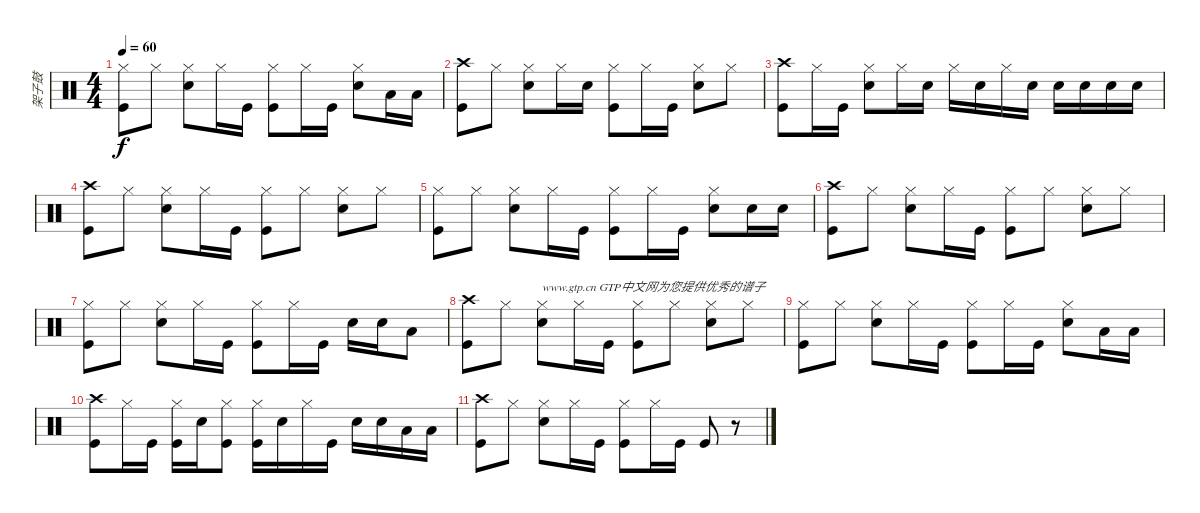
\track ("架子鼓" "架子鼓") {instrument percussion}
\staff {score}
\articulation defaults
\ts (4 4)
\tempo 60
\clef neutral
\ks c
("Hi-Hat (closed)" "Kick (hit)").8{dy f} "Hi-Hat (closed)".8 ("Hi-Hat (closed)" "Snare (hit) 2").8 "Hi-Hat (closed)".16 "Kick (hit)".16 ("Hi-Hat (closed)" "Kick (hit)").8 "Hi-Hat (closed)".16 "Kick (hit)".16 ("Hi-Hat (closed)" "Snare (hit) 2").8 "Low Tom (hit)".16 "Low Tom (hit)".16 |
("Crash high (hit)" "Kick (hit)").8 "Hi-Hat (closed)".8 ("Hi-Hat (closed)" "Snare (hit) 2").8 "Hi-Hat (closed)".16 "Snare (hit) 2".16 ("Hi-Hat (closed)" "Kick (hit)").8 "Hi-Hat (closed)".16 "Kick (hit)".16 ("Hi-Hat (closed)" "Snare (hit) 2").8 "Hi-Hat (closed)".8 |
("Crash high (hit)" "Kick (hit)").8 "Hi-Hat (closed)".16 "Kick (hit)".16 ("Hi-Hat (closed)" "Snare (hit) 2").8 "Hi-Hat (closed)".16 "Snare (hit) 2".16 "Hi-Hat (closed)".16 "Snare (hit) 2".16 "Hi-Hat (closed)".16 "Snare (hit) 2".16 "Snare (hit) 2".16 "Snare (hit) 2".16 "Snare (hit) 2".16 "Snare (hit) 2".16 |
("Crash high (hit)" "Kick (hit)").8 "Hi-Hat (closed)".8 ("Hi-Hat (closed)" "Snare (hit) 2").8 "Hi-Hat (closed)".16 "Kick (hit)".16 ("Hi-Hat (closed)" "Kick (hit)").8 "Hi-Hat (closed)".8 ("Hi-Hat (closed)" "Snare (hit) 2").8 "Hi-Hat (closed)".8 |
("Hi-Hat (closed)" "Kick (hit)").8 "Hi-Hat (closed)".8 ("Hi-Hat (closed)" "Snare (hit) 2").8 "Hi-Hat (closed)".16 "Kick (hit)".16 ("Hi-Hat (closed)" "Kick (hit)").8 "Hi-Hat (closed)".16 "Kick (hit)".16 ("Hi-Hat (closed)" "Snare (hit) 2").8 "Snare (hit) 2".16 "Snare (hit) 2".16 |
("Crash high (hit)" "Kick (hit)").8 "Hi-Hat (closed)".8 ("Hi-Hat (closed)" "Snare (hit) 2").8 "Hi-Hat (closed)".16 "Kick (hit)".16 ("Hi-Hat (closed)" "Kick (hit)").8 "Hi-Hat (closed)".8 ("Hi-Hat (closed)" "Snare (hit) 2").8 "Hi-Hat (closed)".8 |
("Hi-Hat (closed)" "Kick (hit)").8 "Hi-Hat (closed)".8 ("Hi-Hat (closed)" "Snare (hit) 2").8 "Hi-Hat (closed)".16 "Kick (hit)".16 ("Hi-Hat (closed)" "Kick (hit)").8 "Hi-Hat (closed)".16 "Kick (hit)".16 "Snare (hit) 2".16 "Snare (hit) 2".16 "Low Tom (hit)".8 |
("Crash high (hit)" "Kick (hit)").8 "Hi-Hat (closed)".8 ("Hi-Hat (closed)" "Snare (hit) 2").8{txt "www.gtp.cn GTP中文网为您提供优秀的谱子"} "Hi-Hat (closed)".16 "Kick (hit)".16 ("Hi-Hat (closed)" "Kick (hit)").8 "Hi-Hat (closed)".8 ("Hi-Hat (closed)" "Snare (hit) 2").8 "Hi-Hat (closed)".8 |
("Hi-Hat (closed)" "Kick (hit)").8 "Hi-Hat (closed)".8 ("Hi-Hat (closed)" "Snare (hit) 2").8 "Hi-Hat (closed)".16 "Kick (hit)".16 ("Hi-Hat (closed)" "Kick (hit)").8 "Hi-Hat (closed)".16 "Kick (hit)".16 ("Hi-Hat (closed)" "Snare (hit) 2").8 "Low Tom (hit)".16 "Low Tom (hit)".16 |
("Crash high (hit)" "Kick (hit)").8 "Hi-Hat (closed)".16 "Kick (hit)".16 ("Hi-Hat (closed)" "Kick (hit)").16 "Snare (hit) 2".16 ("Hi-Hat (closed)" "Kick (hit)").8 ("Hi-Hat (closed)" "Kick (hit)").16 "Snare (hit) 2".16 "Hi-Hat (closed)".16 "Kick (hit)".16 "Snare (hit) 2".16 "Snare (hit) 2".16 "Low Tom (hit)".16 "Low Tom (hit)".16 |
("Crash high (hit)" "Kick (hit)").8 "Hi-Hat (closed)".8 ("Hi-Hat (closed)" "Snare (hit) 2").8 "Hi-Hat (closed)".16 "Kick (hit)".16 ("Hi-Hat (closed)" "Kick (hit)").8 "Hi-Hat (closed)".16 "Kick (hit)".16 "Kick (hit)".8 r.8
